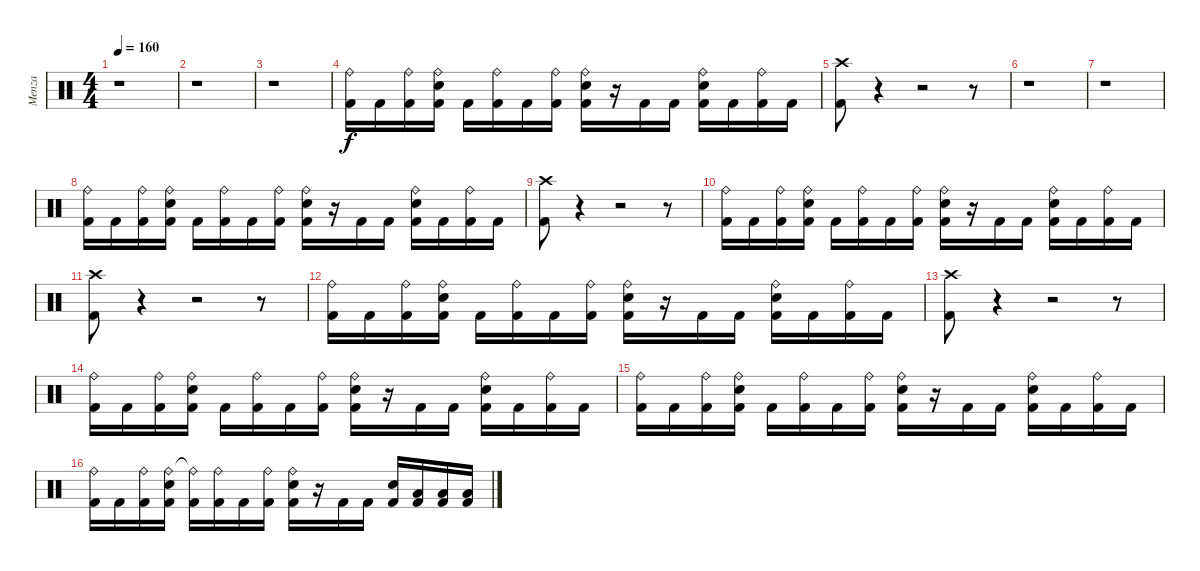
\track ("Menza" "Menza") {instrument percussion}
\staff {score}
\articulation defaults
\ts (4 4)
\tempo 160
\clef neutral
\ks c
r.1{dy f} |
r.1 |
r.1 |
("Ride (bell)" "Kick (hit) 2").16 "Kick (hit) 2".16 ("Ride (bell)" "Kick (hit) 2").16 ("Ride (bell)" "Snare (hit) 2" "Kick (hit) 2").16 "Kick (hit) 2".16 ("Ride (bell)" "Kick (hit) 2").16 "Kick (hit) 2".16 ("Ride (bell)" "Kick (hit) 2").16 ("Ride (bell)" "Snare (hit) 2" "Kick (hit) 2").16 r.16 "Kick (hit) 2".16 "Kick (hit) 2".16 ("Ride (bell)" "Snare (hit) 2" "Kick (hit) 2").16 "Kick (hit) 2".16 ("Ride (bell)" "Kick (hit) 2").16 "Kick (hit) 2".16 |
("Crash high (hit)" "Kick (hit) 2").8 r.4 r.2 r.8 |
r.1 |
r.1 |
("Ride (bell)" "Kick (hit) 2").16 "Kick (hit) 2".16 ("Ride (bell)" "Kick (hit) 2").16 ("Ride (bell)" "Snare (hit) 2" "Kick (hit) 2").16 "Kick (hit) 2".16 ("Ride (bell)" "Kick (hit) 2").16 "Kick (hit) 2".16 ("Ride (bell)" "Kick (hit) 2").16 ("Ride (bell)" "Snare (hit) 2" "Kick (hit) 2").16 r.16 "Kick (hit) 2".16 "Kick (hit) 2".16 ("Ride (bell)" "Snare (hit) 2" "Kick (hit) 2").16 "Kick (hit) 2".16 ("Ride (bell)" "Kick (hit) 2").16 "Kick (hit) 2".16 |
("Crash high (hit)" "Kick (hit) 2").8 r.4 r.2 r.8 |
("Ride (bell)" "Kick (hit) 2").16 "Kick (hit) 2".16 ("Ride (bell)" "Kick (hit) 2").16 ("Ride (bell)" "Snare (hit) 2" "Kick (hit) 2").16 "Kick (hit) 2".16 ("Ride (bell)" "Kick (hit) 2").16 "Kick (hit) 2".16 ("Ride (bell)" "Kick (hit) 2").16 ("Ride (bell)" "Snare (hit) 2" "Kick (hit) 2").16 r.16 "Kick (hit) 2".16 "Kick (hit) 2".16 ("Ride (bell)" "Snare (hit) 2" "Kick (hit) 2").16 "Kick (hit) 2".16 ("Ride (bell)" "Kick (hit) 2").16 "Kick (hit) 2".16 |
("Crash high (hit)" "Kick (hit) 2").8 r.4 r.2 r.8 |
("Ride (bell)" "Kick (hit) 2").16 "Kick (hit) 2".16 ("Ride (bell)" "Kick (hit) 2").16 ("Ride (bell)" "Snare (hit) 2" "Kick (hit) 2").16 "Kick (hit) 2".16 ("Ride (bell)" "Kick (hit) 2").16 "Kick (hit) 2".16 ("Ride (bell)" "Kick (hit) 2").16 ("Ride (bell)" "Snare (hit) 2" "Kick (hit) 2").16 r.16 "Kick (hit) 2".16 "Kick (hit) 2".16 ("Ride (bell)" "Snare (hit) 2" "Kick (hit) 2").16 "Kick (hit) 2".16 ("Ride (bell)" "Kick (hit) 2").16 "Kick (hit) 2".16 |
("Crash high (hit)" "Kick (hit) 2").8 r.4 r.2 r.8 |
("Ride (bell)" "Kick (hit) 2").16 "Kick (hit) 2".16 ("Ride (bell)" "Kick (hit) 2").16 ("Ride (bell)" "Snare (hit) 2" "Kick (hit) 2").16 "Kick (hit) 2".16 ("Ride (bell)" "Kick (hit) 2").16 "Kick (hit) 2".16 ("Ride (bell)" "Kick (hit) 2").16 ("Ride (bell)" "Snare (hit) 2" "Kick (hit) 2").16 r.16 "Kick (hit) 2".16 "Kick (hit) 2".16 ("Ride (bell)" "Snare (hit) 2" "Kick (hit) 2").16 "Kick (hit) 2".16 ("Ride (bell)" "Kick (hit) 2").16 "Kick (hit) 2".16 |
("Ride (bell)" "Kick (hit) 2").16 "Kick (hit) 2".16 ("Ride (bell)" "Kick (hit) 2").16 ("Ride (bell)" "Snare (hit) 2" "Kick (hit) 2").16 "Kick (hit) 2".16 ("Ride (bell)" "Kick (hit) 2").16 "Kick (hit) 2".16 ("Ride (bell)" "Kick (hit) 2").16 ("Ride (bell)" "Snare (hit) 2" "Kick (hit) 2").16 r.16 "Kick (hit) 2".16 "Kick (hit) 2".16 ("Ride (bell)" "Snare (hit) 2" "Kick (hit) 2").16 "Kick (hit) 2".16 ("Ride (bell)" "Kick (hit) 2").16 "Kick (hit) 2".16 |
("Ride (bell)" "Kick (hit) 2").16 "Kick (hit) 2".16 ("Ride (bell)" "Kick (hit) 2").16 ("Ride (bell)" "Snare (hit) 2" "Kick (hit) 2").16 ("Ride (bell)"{t} "Kick (hit) 2").16 ("Ride (bell)" "Kick (hit) 2").16 "Kick (hit) 2".16 ("Ride (bell)" "Kick (hit) 2").16 ("Ride (bell)" "Snare (hit) 2" "Kick (hit) 2").16 r.16 "Kick (hit) 2".16 "Kick (hit) 2".16 ("Electric Snare (hit)" "Kick (hit) 2").16 ("Low Tom (hit)" "Kick (hit) 2").16 ("Low Tom (hit)" "Kick (hit) 2").16 ("Low Tom (hit)" "Kick (hit) 2").16
